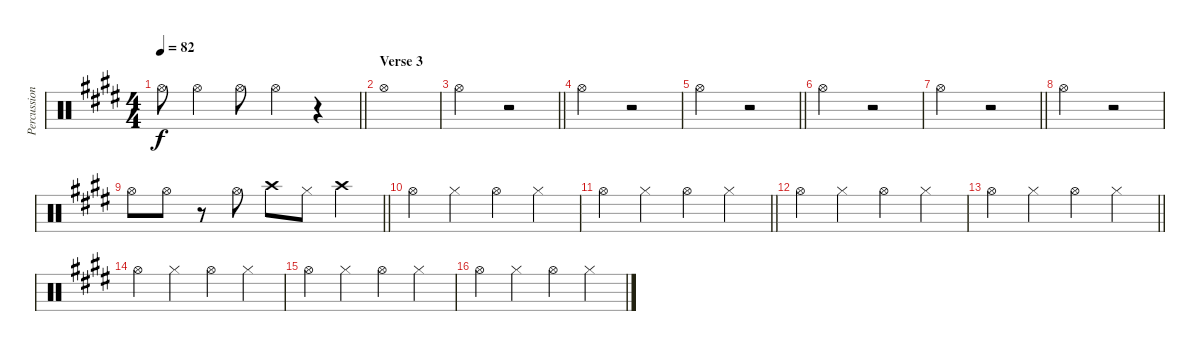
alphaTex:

\track ("Percussion" "Percussion") {instrument percussion}
\staff {score}
\articulation defaults
\ts (4 4)
\tempo 82
\clef neutral
\barLineRight lightlight
\ks e "Hi-Hat (open)".8{dy f} "Hi-Hat (open)".4 "Hi-Hat (open)".8 "Hi-Hat (open)".4
r.4 |
\section ("" "Verse 3")
"Hi-Hat (open)".1 |
\barLineRight lightlight "Hi-Hat (open)".2
r.2 |
"Hi-Hat (open)".2 r.2 |
\barLineRight lightlight "Hi-Hat (open)".2
r.2 |
"Hi-Hat (open)".2 r.2 |
\barLineRight lightlight "Hi-Hat (open)".2
r.2 |
"Hi-Hat (open)".2 r.2 |
\barLineRight lightlight "Hi-Hat (open)".8 "Hi-Hat (open)".8
r.8 "Hi-Hat (open)".8 "Crash high (hit)".8 "Hi-Hat (closed)".8 "Crash high (hit)".4 |
"Hi-Hat (open)".4 "Hi-Hat (closed)".4 "Hi-Hat (open)".4 "Hi-Hat (closed)".4 |
\barLineRight lightlight "Hi-Hat (open)".4 "Hi-Hat (closed)".4 "Hi-Hat (open)".4 "Hi-Hat (closed)".4
|
"Hi-Hat (open)".4 "Hi-Hat (closed)".4 "Hi-Hat (open)".4 "Hi-Hat (closed)".4 |
\barLineRight lightlight "Hi-Hat (open)".4 "Hi-Hat (closed)".4 "Hi-Hat (open)".4 "Hi-Hat (closed)".4
|
"Hi-Hat (open)".4 "Hi-Hat (closed)".4 "Hi-Hat (open)".4 "Hi-Hat (closed)".4 |
"Hi-Hat (open)".4 "Hi-Hat (closed)".4 "Hi-Hat (open)".4 "Hi-Hat (closed)".4 |
"Hi-Hat (open)".4 "Hi-Hat (closed)".4 "Hi-Hat (open)".4 "Hi-Hat (closed)".4
